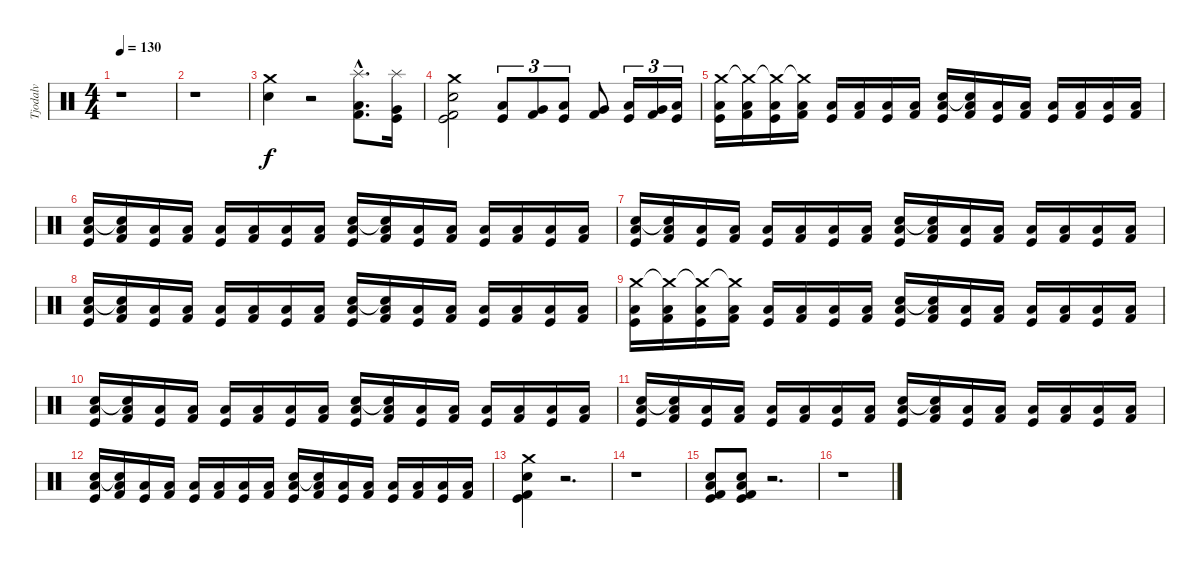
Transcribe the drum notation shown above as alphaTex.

\track ("Tjodalv" "Tjodalv") {instrument percussion}
\staff {score}
\articulation defaults
\ts (4 4)
\tempo 130
\clef neutral
\ks c
r.1{dy f} |
r.1 |
("Crash medium (hit)" "Snare (hit) 2").4 r.2 ("Splash (hit)"{hac} "Low Floor Tom (hit)"{hac} "Kick (hit) 2"{hac}).8{d} ("Splash (hit)" "Very Low Tom (hit)" "Kick (hit)").16 |
("Crash medium (hit)" "Snare (hit) 2" "Kick (hit)" "Kick (hit) 2").2 ("Kick (hit)" "Low Floor Tom (hit)").8{tu (3 2)} ("Kick (hit) 2" "Very Low Tom (hit)").8{tu (3 2)} ("Kick (hit)" "Low Floor Tom (hit)").8{tu (3 2)} ("Kick (hit) 2" "Very Low Tom (hit)").8 ("Kick (hit)" "Low Floor Tom (hit)").16{tu (3 2)} ("Kick (hit) 2" "Very Low Tom (hit)").16{tu (3 2)} ("Kick (hit)" "Low Floor Tom (hit)").16{tu (3 2)} |
("Crash medium (hit)" "Low Floor Tom (hit)" "Kick (hit)").16 ("Crash medium (hit)"{t} "Low Floor Tom (hit)" "Kick (hit) 2").16 ("Crash medium (hit)"{t} "Low Floor Tom (hit)" "Kick (hit)").16 ("Crash medium (hit)"{t} "Low Floor Tom (hit)" "Kick (hit) 2").16 ("Low Floor Tom (hit)" "Kick (hit)").16 ("Low Floor Tom (hit)" "Kick (hit) 2").16 ("Low Floor Tom (hit)" "Kick (hit)").16 ("Low Floor Tom (hit)" "Kick (hit) 2").16 ("Snare (hit) 2" "Low Floor Tom (hit)" "Kick (hit)").16 ("Snare (hit) 2"{t} "Low Floor Tom (hit)" "Kick (hit) 2").16 ("Low Floor Tom (hit)" "Kick (hit)").16 ("Low Floor Tom (hit)" "Kick (hit) 2").16 ("Low Floor Tom (hit)" "Kick (hit)").16 ("Low Floor Tom (hit)" "Kick (hit) 2").16 ("Low Floor Tom (hit)" "Kick (hit)").16 ("Low Floor Tom (hit)" "Kick (hit) 2").16 |
("Snare (hit) 2" "Low Floor Tom (hit)" "Kick (hit)").16 ("Snare (hit) 2"{t} "Low Floor Tom (hit)" "Kick (hit) 2").16 ("Low Floor Tom (hit)" "Kick (hit)").16 ("Low Floor Tom (hit)" "Kick (hit) 2").16 ("Low Floor Tom (hit)" "Kick (hit)").16 ("Low Floor Tom (hit)" "Kick (hit) 2").16 ("Low Floor Tom (hit)" "Kick (hit)").16 ("Low Floor Tom (hit)" "Kick (hit) 2").16 ("Snare (hit) 2" "Low Floor Tom (hit)" "Kick (hit)").16 ("Snare (hit) 2"{t} "Low Floor Tom (hit)" "Kick (hit) 2").16 ("Low Floor Tom (hit)" "Kick (hit)").16 ("Low Floor Tom (hit)" "Kick (hit) 2").16 ("Low Floor Tom (hit)" "Kick (hit)").16 ("Low Floor Tom (hit)" "Kick (hit) 2").16 ("Low Floor Tom (hit)" "Kick (hit)").16 ("Low Floor Tom (hit)" "Kick (hit) 2").16 |
("Snare (hit) 2" "Low Floor Tom (hit)" "Kick (hit)").16 ("Snare (hit) 2"{t} "Low Floor Tom (hit)" "Kick (hit) 2").16 ("Low Floor Tom (hit)" "Kick (hit)").16 ("Low Floor Tom (hit)" "Kick (hit) 2").16 ("Low Floor Tom (hit)" "Kick (hit)").16 ("Low Floor Tom (hit)" "Kick (hit) 2").16 ("Low Floor Tom (hit)" "Kick (hit)").16 ("Low Floor Tom (hit)" "Kick (hit) 2").16 ("Snare (hit) 2" "Low Floor Tom (hit)" "Kick (hit)").16 ("Snare (hit) 2"{t} "Low Floor Tom (hit)" "Kick (hit) 2").16 ("Low Floor Tom (hit)" "Kick (hit)").16 ("Low Floor Tom (hit)" "Kick (hit) 2").16 ("Low Floor Tom (hit)" "Kick (hit)").16 ("Low Floor Tom (hit)" "Kick (hit) 2").16 ("Low Floor Tom (hit)" "Kick (hit)").16 ("Low Floor Tom (hit)" "Kick (hit) 2").16 |
("Snare (hit) 2" "Low Floor Tom (hit)" "Kick (hit)").16 ("Snare (hit) 2"{t} "Low Floor Tom (hit)" "Kick (hit) 2").16 ("Low Floor Tom (hit)" "Kick (hit)").16 ("Low Floor Tom (hit)" "Kick (hit) 2").16 ("Low Floor Tom (hit)" "Kick (hit)").16 ("Low Floor Tom (hit)" "Kick (hit) 2").16 ("Low Floor Tom (hit)" "Kick (hit)").16 ("Low Floor Tom (hit)" "Kick (hit) 2").16 ("Snare (hit) 2" "Low Floor Tom (hit)" "Kick (hit)").16 ("Snare (hit) 2"{t} "Low Floor Tom (hit)" "Kick (hit) 2").16 ("Low Floor Tom (hit)" "Kick (hit)").16 ("Low Floor Tom (hit)" "Kick (hit) 2").16 ("Low Floor Tom (hit)" "Kick (hit)").16 ("Low Floor Tom (hit)" "Kick (hit) 2").16 ("Low Floor Tom (hit)" "Kick (hit)").16 ("Low Floor Tom (hit)" "Kick (hit) 2").16 |
("Crash medium (hit)" "Low Floor Tom (hit)" "Kick (hit)").16 ("Crash medium (hit)"{t} "Low Floor Tom (hit)" "Kick (hit) 2").16 ("Crash medium (hit)"{t} "Low Floor Tom (hit)" "Kick (hit)").16 ("Crash medium (hit)"{t} "Low Floor Tom (hit)" "Kick (hit) 2").16 ("Low Floor Tom (hit)" "Kick (hit)").16 ("Low Floor Tom (hit)" "Kick (hit) 2").16 ("Low Floor Tom (hit)" "Kick (hit)").16 ("Low Floor Tom (hit)" "Kick (hit) 2").16 ("Snare (hit) 2" "Low Floor Tom (hit)" "Kick (hit)").16 ("Snare (hit) 2"{t} "Low Floor Tom (hit)" "Kick (hit) 2").16 ("Low Floor Tom (hit)" "Kick (hit)").16 ("Low Floor Tom (hit)" "Kick (hit) 2").16 ("Low Floor Tom (hit)" "Kick (hit)").16 ("Low Floor Tom (hit)" "Kick (hit) 2").16 ("Low Floor Tom (hit)" "Kick (hit)").16 ("Low Floor Tom (hit)" "Kick (hit) 2").16 |
("Snare (hit) 2" "Low Floor Tom (hit)" "Kick (hit)").16 ("Snare (hit) 2"{t} "Low Floor Tom (hit)" "Kick (hit) 2").16 ("Low Floor Tom (hit)" "Kick (hit)").16 ("Low Floor Tom (hit)" "Kick (hit) 2").16 ("Low Floor Tom (hit)" "Kick (hit)").16 ("Low Floor Tom (hit)" "Kick (hit) 2").16 ("Low Floor Tom (hit)" "Kick (hit)").16 ("Low Floor Tom (hit)" "Kick (hit) 2").16 ("Snare (hit) 2" "Low Floor Tom (hit)" "Kick (hit)").16 ("Snare (hit) 2"{t} "Low Floor Tom (hit)" "Kick (hit) 2").16 ("Low Floor Tom (hit)" "Kick (hit)").16 ("Low Floor Tom (hit)" "Kick (hit) 2").16 ("Low Floor Tom (hit)" "Kick (hit)").16 ("Low Floor Tom (hit)" "Kick (hit) 2").16 ("Low Floor Tom (hit)" "Kick (hit)").16 ("Low Floor Tom (hit)" "Kick (hit) 2").16 |
("Snare (hit) 2" "Low Floor Tom (hit)" "Kick (hit)").16 ("Snare (hit) 2"{t} "Low Floor Tom (hit)" "Kick (hit) 2").16 ("Low Floor Tom (hit)" "Kick (hit)").16 ("Low Floor Tom (hit)" "Kick (hit) 2").16 ("Low Floor Tom (hit)" "Kick (hit)").16 ("Low Floor Tom (hit)" "Kick (hit) 2").16 ("Low Floor Tom (hit)" "Kick (hit)").16 ("Low Floor Tom (hit)" "Kick (hit) 2").16 ("Snare (hit) 2" "Low Floor Tom (hit)" "Kick (hit)").16 ("Snare (hit) 2"{t} "Low Floor Tom (hit)" "Kick (hit) 2").16 ("Low Floor Tom (hit)" "Kick (hit)").16 ("Low Floor Tom (hit)" "Kick (hit) 2").16 ("Low Floor Tom (hit)" "Kick (hit)").16 ("Low Floor Tom (hit)" "Kick (hit) 2").16 ("Low Floor Tom (hit)" "Kick (hit)").16 ("Low Floor Tom (hit)" "Kick (hit) 2").16 |
("Snare (hit) 2" "Low Floor Tom (hit)" "Kick (hit)").16 ("Snare (hit) 2"{t} "Low Floor Tom (hit)" "Kick (hit) 2").16 ("Low Floor Tom (hit)" "Kick (hit)").16 ("Low Floor Tom (hit)" "Kick (hit) 2").16 ("Low Floor Tom (hit)" "Kick (hit)").16 ("Low Floor Tom (hit)" "Kick (hit) 2").16 ("Low Floor Tom (hit)" "Kick (hit)").16 ("Low Floor Tom (hit)" "Kick (hit) 2").16 ("Snare (hit) 2" "Low Floor Tom (hit)" "Kick (hit)").16 ("Snare (hit) 2"{t} "Low Floor Tom (hit)" "Kick (hit) 2").16 ("Low Floor Tom (hit)" "Kick (hit)").16 ("Low Floor Tom (hit)" "Kick (hit) 2").16 ("Low Floor Tom (hit)" "Kick (hit)").16 ("Low Floor Tom (hit)" "Kick (hit) 2").16 ("Low Floor Tom (hit)" "Kick (hit)").16 ("Low Floor Tom (hit)" "Kick (hit) 2").16 |
("Crash medium (hit)" "Snare (hit) 2" "Kick (hit)" "Kick (hit) 2").4 r.2{d} |
r.1 |
("Low Floor Tom (hit)" "Snare (hit) 2" "Kick (hit)" "Kick (hit) 2").8 ("Low Floor Tom (hit)" "Snare (hit) 2" "Kick (hit)" "Kick (hit) 2").8 r.2{d} |
r.1
